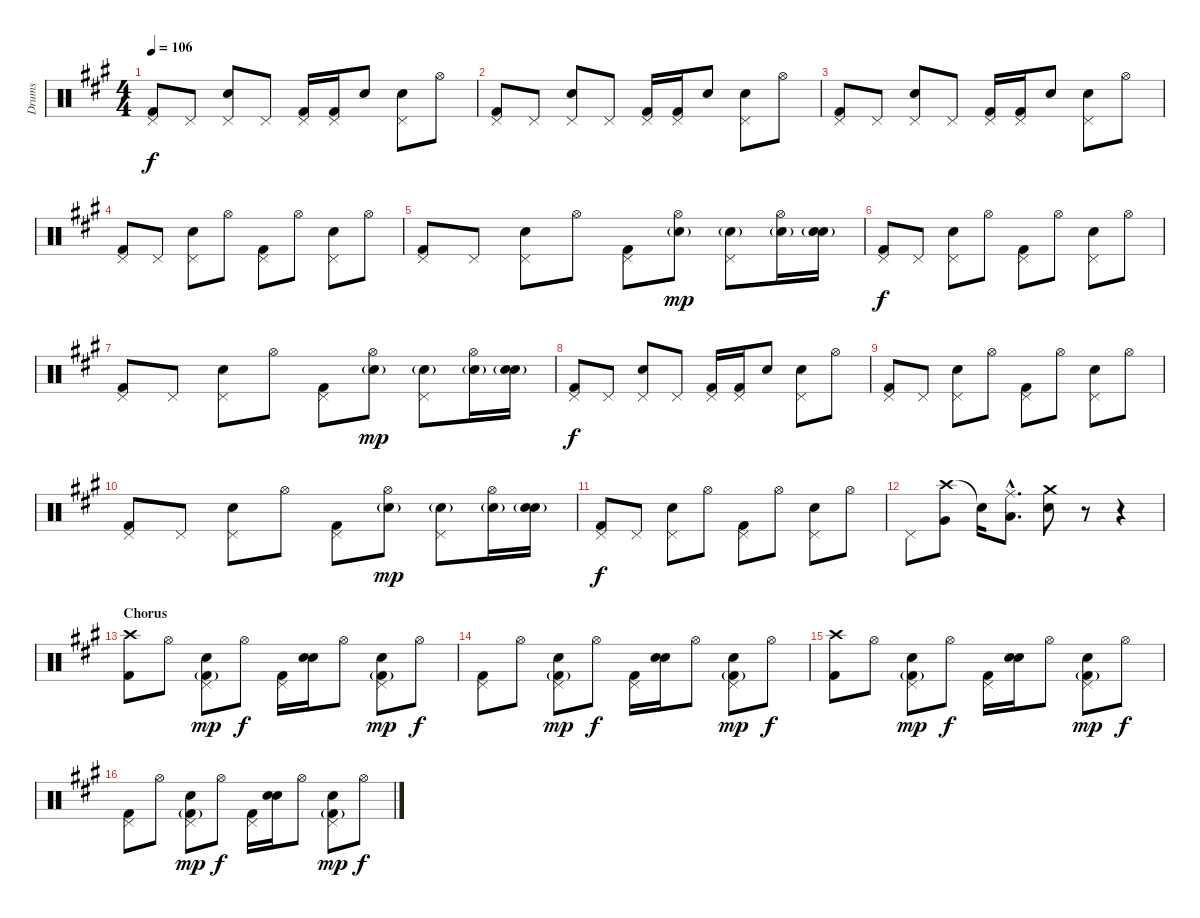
\track ("Drums" "Drums") {instrument percussion}
\staff {score}
\articulation defaults
\ts (4 4)
\tempo 106
\clef neutral
\ks a
("Pedal Hi-Hat (hit)" "Kick (hit) 2").8{dy f} "Pedal Hi-Hat (hit)".8 ("Pedal Hi-Hat (hit)" "Electric Snare (hit)").8 "Pedal Hi-Hat (hit)".8 ("Pedal Hi-Hat (hit)" "Kick (hit) 2").16 ("Pedal Hi-Hat (hit)" "Kick (hit) 2").16 "Snare (hit)"{x}.8 ("Pedal Hi-Hat (hit)" "Electric Snare (hit)").8 "Hi-Hat (open)".8 |
("Pedal Hi-Hat (hit)" "Kick (hit) 2").8 "Pedal Hi-Hat (hit)".8 ("Pedal Hi-Hat (hit)" "Electric Snare (hit)").8 "Pedal Hi-Hat (hit)".8 ("Pedal Hi-Hat (hit)" "Kick (hit) 2").16 ("Pedal Hi-Hat (hit)" "Kick (hit) 2").16 "Snare (hit)"{x}.8 ("Pedal Hi-Hat (hit)" "Electric Snare (hit)").8 "Hi-Hat (open)".8 |
("Pedal Hi-Hat (hit)" "Kick (hit) 2").8 "Pedal Hi-Hat (hit)".8 ("Pedal Hi-Hat (hit)" "Electric Snare (hit)").8 "Pedal Hi-Hat (hit)".8 ("Pedal Hi-Hat (hit)" "Kick (hit) 2").16 ("Pedal Hi-Hat (hit)" "Kick (hit) 2").16 "Snare (hit)"{x}.8 ("Pedal Hi-Hat (hit)" "Electric Snare (hit)").8 "Hi-Hat (open)".8 |
("Pedal Hi-Hat (hit)" "Kick (hit) 2").8 "Pedal Hi-Hat (hit)".8 ("Pedal Hi-Hat (hit)" "Electric Snare (hit)").8 "Hi-Hat (open)".8 ("Pedal Hi-Hat (hit)" "Kick (hit) 2").8 "Hi-Hat (open)".8 ("Pedal Hi-Hat (hit)" "Electric Snare (hit)").8 "Hi-Hat (open)".8 |
("Pedal Hi-Hat (hit)" "Kick (hit) 2").8 "Pedal Hi-Hat (hit)".8 ("Pedal Hi-Hat (hit)" "Electric Snare (hit)").8 "Hi-Hat (open)".8 ("Pedal Hi-Hat (hit)" "Kick (hit) 2").8 ("Hi-Hat (open)" "Electric Snare (hit)"{g}).8{dy mp} ("Pedal Hi-Hat (hit)" "Electric Snare (hit)"{g}).8 ("Hi-Hat (open)" "Electric Snare (hit)"{g}).16 ("Snare (hit)"{x} "Electric Snare (hit)"{g}).16 |
("Pedal Hi-Hat (hit)" "Kick (hit) 2").8{dy f} "Pedal Hi-Hat (hit)".8 ("Pedal Hi-Hat (hit)" "Electric Snare (hit)").8 "Hi-Hat (open)".8 ("Pedal Hi-Hat (hit)" "Kick (hit) 2").8 "Hi-Hat (open)".8 ("Pedal Hi-Hat (hit)" "Electric Snare (hit)").8 "Hi-Hat (open)".8 |
("Pedal Hi-Hat (hit)" "Kick (hit) 2").8 "Pedal Hi-Hat (hit)".8 ("Pedal Hi-Hat (hit)" "Electric Snare (hit)").8 "Hi-Hat (open)".8 ("Pedal Hi-Hat (hit)" "Kick (hit) 2").8 ("Hi-Hat (open)" "Electric Snare (hit)"{g}).8{dy mp} ("Pedal Hi-Hat (hit)" "Electric Snare (hit)"{g}).8 ("Hi-Hat (open)" "Electric Snare (hit)"{g}).16 ("Snare (hit)"{x} "Electric Snare (hit)"{g}).16 |
("Pedal Hi-Hat (hit)" "Kick (hit) 2").8{dy f} "Pedal Hi-Hat (hit)".8 ("Pedal Hi-Hat (hit)" "Electric Snare (hit)").8 "Pedal Hi-Hat (hit)".8 ("Pedal Hi-Hat (hit)" "Kick (hit) 2").16 ("Pedal Hi-Hat (hit)" "Kick (hit) 2").16 "Snare (hit)"{x}.8 ("Pedal Hi-Hat (hit)" "Electric Snare (hit)").8 "Hi-Hat (open)".8 |
("Pedal Hi-Hat (hit)" "Kick (hit) 2").8 "Pedal Hi-Hat (hit)".8 ("Pedal Hi-Hat (hit)" "Electric Snare (hit)").8 "Hi-Hat (open)".8 ("Pedal Hi-Hat (hit)" "Kick (hit) 2").8 "Hi-Hat (open)".8 ("Pedal Hi-Hat (hit)" "Electric Snare (hit)").8 "Hi-Hat (open)".8 |
("Pedal Hi-Hat (hit)" "Kick (hit) 2").8 "Pedal Hi-Hat (hit)".8 ("Pedal Hi-Hat (hit)" "Electric Snare (hit)").8 "Hi-Hat (open)".8 ("Pedal Hi-Hat (hit)" "Kick (hit) 2").8 ("Hi-Hat (open)" "Electric Snare (hit)"{g}).8{dy mp} ("Pedal Hi-Hat (hit)" "Electric Snare (hit)"{g}).8 ("Hi-Hat (open)" "Electric Snare (hit)"{g}).16 ("Snare (hit)"{x} "Electric Snare (hit)"{g}).16 |
("Pedal Hi-Hat (hit)" "Kick (hit) 2").8{dy f} "Pedal Hi-Hat (hit)".8 ("Pedal Hi-Hat (hit)" "Electric Snare (hit)").8 "Hi-Hat (open)".8 ("Pedal Hi-Hat (hit)" "Kick (hit) 2").8 "Hi-Hat (open)".8 ("Pedal Hi-Hat (hit)" "Electric Snare (hit)").8 "Hi-Hat (open)".8 |
"Pedal Hi-Hat (hit)".8 ("Crash high (hit)" "Very Low Tom (hit)").8 "Snare (hit)"{t}.16 ("Ride (middle)"{hac} "Low Floor Tom (hit)"{hac}).8{d} ("Crash medium (hit)" "Electric Snare (hit)").8 r.8 r.4 |
\section ("" "Chorus")
("Crash high (hit)" "Kick (hit) 2").8 "Hi-Hat (open)".8 ("Pedal Hi-Hat (hit)" "Electric Snare (hit)" "Kick (hit) 2"{g}).8{dy mp} "Hi-Hat (open)".8{dy f} ("Pedal Hi-Hat (hit)" "Kick (hit) 2").16 ("Snare (hit)"{x} "Electric Snare (hit)").16 "Hi-Hat (open)".8 ("Pedal Hi-Hat (hit)" "Electric Snare (hit)" "Kick (hit) 2"{g}).8{dy mp} "Hi-Hat (open)".8{dy f} |
("Pedal Hi-Hat (hit)" "Kick (hit) 2").8 "Hi-Hat (open)".8 ("Pedal Hi-Hat (hit)" "Electric Snare (hit)" "Kick (hit) 2"{g}).8{dy mp} "Hi-Hat (open)".8{dy f} ("Pedal Hi-Hat (hit)" "Kick (hit) 2").16 ("Snare (hit)"{x} "Electric Snare (hit)").16 "Hi-Hat (open)".8 ("Pedal Hi-Hat (hit)" "Electric Snare (hit)" "Kick (hit) 2"{g}).8{dy mp} "Hi-Hat (open)".8{dy f} |
("Crash high (hit)" "Kick (hit) 2").8 "Hi-Hat (open)".8 ("Pedal Hi-Hat (hit)" "Electric Snare (hit)" "Kick (hit) 2"{g}).8{dy mp} "Hi-Hat (open)".8{dy f} ("Pedal Hi-Hat (hit)" "Kick (hit) 2").16 ("Snare (hit)"{x} "Electric Snare (hit)").16 "Hi-Hat (open)".8 ("Pedal Hi-Hat (hit)" "Electric Snare (hit)" "Kick (hit) 2"{g}).8{dy mp} "Hi-Hat (open)".8{dy f} |
("Pedal Hi-Hat (hit)" "Kick (hit) 2").8 "Hi-Hat (open)".8 ("Pedal Hi-Hat (hit)" "Electric Snare (hit)" "Kick (hit) 2"{g}).8{dy mp} "Hi-Hat (open)".8{dy f} ("Pedal Hi-Hat (hit)" "Kick (hit) 2").16 ("Snare (hit)"{x} "Electric Snare (hit)").16 "Hi-Hat (open)".8 ("Pedal Hi-Hat (hit)" "Electric Snare (hit)" "Kick (hit) 2"{g}).8{dy mp} "Hi-Hat (open)".8{dy f}
